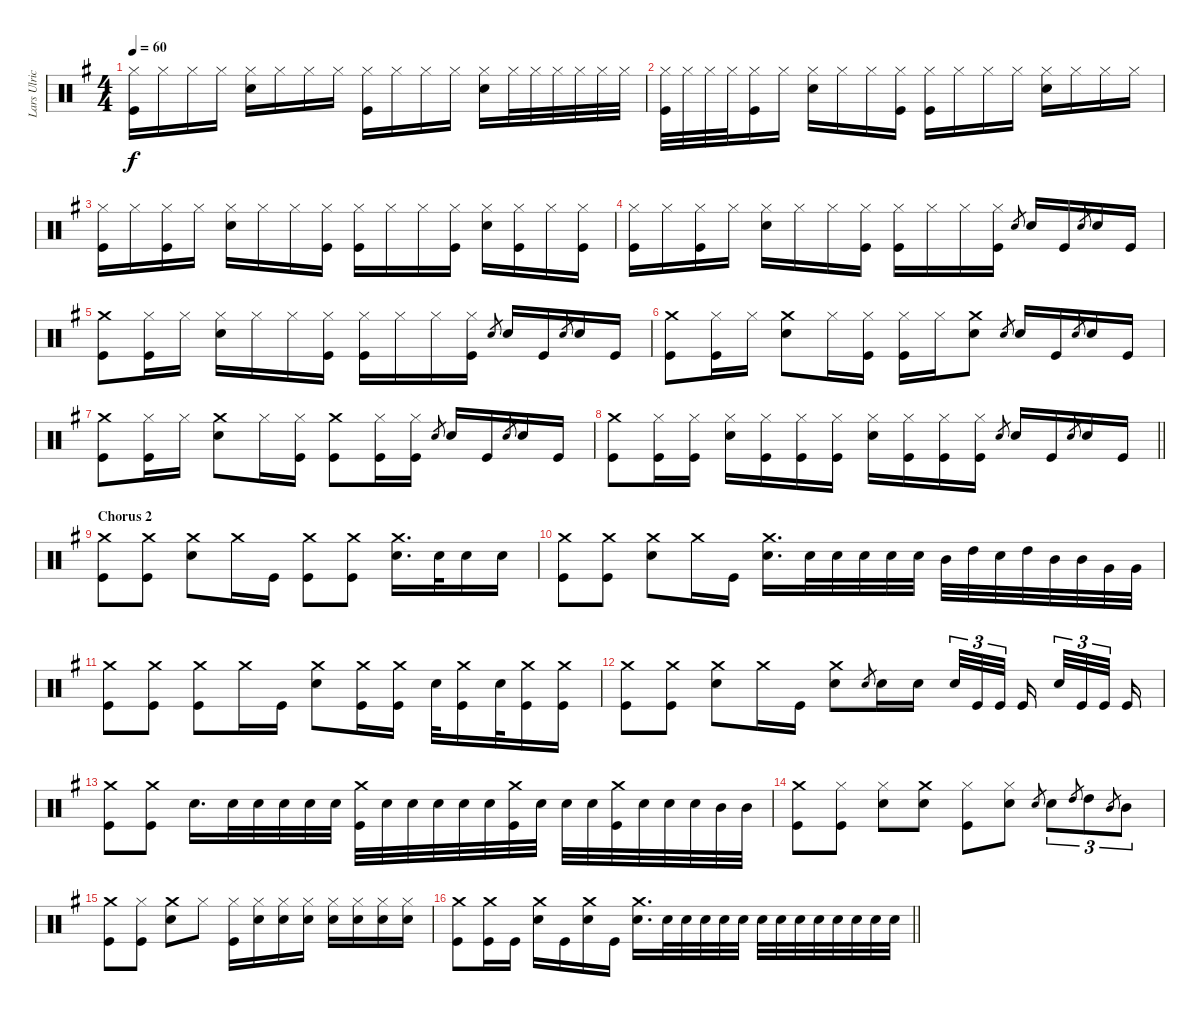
\track ("Lars Ulrich [Drums]" "Lars Ulric") {instrument percussion}
\staff {score}
\articulation defaults
\ts (4 4)
\tempo 60
\clef neutral
\ks g
("Kick (hit)" "Hi-Hat (closed)").16{dy f} "Hi-Hat (closed)".16 "Hi-Hat (closed)".16 "Hi-Hat (closed)".16 ("Electric Snare (hit)" "Hi-Hat (closed)").16 "Hi-Hat (closed)".16 "Hi-Hat (closed)".16 "Hi-Hat (closed)".16 ("Kick (hit)" "Hi-Hat (closed)").16 "Hi-Hat (closed)".16 "Hi-Hat (closed)".16 "Hi-Hat (closed)".16 ("Electric Snare (hit)" "Hi-Hat (closed)").16 "Hi-Hat (closed)".32 "Hi-Hat (closed)".32 "Hi-Hat (closed)".32 "Hi-Hat (closed)".32 "Hi-Hat (closed)".32 "Hi-Hat (closed)".32 |
("Kick (hit)" "Hi-Hat (closed)").32 "Hi-Hat (closed)".32 "Hi-Hat (closed)".32 "Hi-Hat (closed)".32 ("Kick (hit)" "Hi-Hat (closed)").16 "Hi-Hat (closed)".16 ("Electric Snare (hit)" "Hi-Hat (closed)").16 "Hi-Hat (closed)".16 "Hi-Hat (closed)".16 ("Kick (hit)" "Hi-Hat (closed)").16 ("Kick (hit)" "Hi-Hat (closed)").16 "Hi-Hat (closed)".16 "Hi-Hat (closed)".16 "Hi-Hat (closed)".16 ("Electric Snare (hit)" "Hi-Hat (closed)").16 "Hi-Hat (closed)".16 "Hi-Hat (closed)".16 "Hi-Hat (closed)".16 |
("Kick (hit)" "Hi-Hat (closed)").16 "Hi-Hat (closed)".16 ("Kick (hit)" "Hi-Hat (closed)").16 "Hi-Hat (closed)".16 ("Electric Snare (hit)" "Hi-Hat (closed)").16 "Hi-Hat (closed)".16 "Hi-Hat (closed)".16 ("Kick (hit)" "Hi-Hat (closed)").16 ("Kick (hit)" "Hi-Hat (closed)").16 "Hi-Hat (closed)".16 "Hi-Hat (closed)".16 ("Kick (hit)" "Hi-Hat (closed)").16 ("Electric Snare (hit)" "Hi-Hat (closed)").16 ("Kick (hit)" "Hi-Hat (closed)").16 "Hi-Hat (closed)".16 ("Kick (hit)" "Hi-Hat (closed)").16 |
("Kick (hit)" "Hi-Hat (closed)").16 "Hi-Hat (closed)".16 ("Kick (hit)" "Hi-Hat (closed)").16 "Hi-Hat (closed)".16 ("Electric Snare (hit)" "Hi-Hat (closed)").16 "Hi-Hat (closed)".16 "Hi-Hat (closed)".16 ("Kick (hit)" "Hi-Hat (closed)").16 ("Kick (hit)" "Hi-Hat (closed)").16 "Hi-Hat (closed)".16 "Hi-Hat (closed)".16 ("Kick (hit)" "Hi-Hat (closed)").16 "Electric Snare (hit)".8{gr} "Electric Snare (hit)".16 "Kick (hit)".16 "Electric Snare (hit)".8{gr} "Electric Snare (hit)".16 "Kick (hit)".16 |
("Kick (hit)" "Crash medium (hit)").8 ("Kick (hit)" "Hi-Hat (closed)").16 "Hi-Hat (closed)".16 ("Electric Snare (hit)" "Hi-Hat (closed)").16 "Hi-Hat (closed)".16 "Hi-Hat (closed)".16 ("Kick (hit)" "Hi-Hat (closed)").16 ("Kick (hit)" "Hi-Hat (closed)").16 "Hi-Hat (closed)".16 "Hi-Hat (closed)".16 ("Kick (hit)" "Hi-Hat (closed)").16 "Electric Snare (hit)".8{gr} "Electric Snare (hit)".16 "Kick (hit)".16 "Electric Snare (hit)".8{gr} "Electric Snare (hit)".16 "Kick (hit)".16 |
("Kick (hit)" "Crash medium (hit)").8 ("Kick (hit)" "Hi-Hat (closed)").16 "Hi-Hat (closed)".16 ("Electric Snare (hit)" "Crash medium (hit)").8 "Hi-Hat (closed)".16 ("Kick (hit)" "Hi-Hat (closed)").16 ("Kick (hit)" "Hi-Hat (closed)").16 "Hi-Hat (closed)".16 ("Electric Snare (hit)" "Crash medium (hit)").8 "Electric Snare (hit)".8{gr} "Electric Snare (hit)".16 "Kick (hit)".16 "Electric Snare (hit)".8{gr} "Electric Snare (hit)".16 "Kick (hit)".16 |
("Kick (hit)" "Crash medium (hit)").8 ("Kick (hit)" "Hi-Hat (closed)").16 "Hi-Hat (closed)".16 ("Electric Snare (hit)" "Crash medium (hit)").8 "Hi-Hat (closed)".16 ("Kick (hit)" "Hi-Hat (closed)").16 ("Kick (hit)" "Crash medium (hit)").8 ("Kick (hit)" "Hi-Hat (closed)").16 ("Kick (hit)" "Hi-Hat (closed)").16 "Electric Snare (hit)".8{gr} "Electric Snare (hit)".16 "Kick (hit)".16 "Electric Snare (hit)".8{gr} "Electric Snare (hit)".16 "Kick (hit)".16 |
\barLineRight lightlight
("Kick (hit)" "Crash medium (hit)").8 ("Kick (hit)" "Hi-Hat (closed)").16 ("Kick (hit)" "Hi-Hat (closed)").16 ("Electric Snare (hit)" "Hi-Hat (closed)").16 ("Kick (hit)" "Hi-Hat (closed)").16 ("Kick (hit)" "Hi-Hat (closed)").16 ("Kick (hit)" "Hi-Hat (closed)").16 ("Electric Snare (hit)" "Hi-Hat (closed)").16 ("Kick (hit)" "Hi-Hat (closed)").16 ("Kick (hit)" "Hi-Hat (closed)").16 ("Kick (hit)" "Hi-Hat (closed)").16 "Electric Snare (hit)".8{gr} "Electric Snare (hit)".16 "Kick (hit)".16 "Electric Snare (hit)".8{gr} "Electric Snare (hit)".16 "Kick (hit)".16 |
\section ("" "Chorus 2")
("Kick (hit)" "Crash medium (hit)").8 ("Kick (hit)" "Crash medium (hit)").8 ("Electric Snare (hit)" "Crash medium (hit)").8 "Crash medium (hit)".16 "Kick (hit)".16 ("Kick (hit)" "Crash medium (hit)").8 ("Kick (hit)" "Crash medium (hit)").8 ("Electric Snare (hit)" "Crash medium (hit)").16{d} "Electric Snare (hit)".32 "Electric Snare (hit)".16 "Electric Snare (hit)".16 |
("Kick (hit)" "Crash medium (hit)").8 ("Kick (hit)" "Crash medium (hit)").8 ("Electric Snare (hit)" "Crash medium (hit)").8 "Crash medium (hit)".16 "Kick (hit)".16 ("Electric Snare (hit)" "Crash medium (hit)").16{d} "Electric Snare (hit)".32 "Electric Snare (hit)".32 "Electric Snare (hit)".32 "Electric Snare (hit)".32 "Electric Snare (hit)".32 "Mid Tom (hit)".32 "High Tom (hit)".32 "Electric Snare (hit)".32 "High Tom (hit)".32 "Mid Tom (hit)".32 "Mid Tom (hit)".32 "Very Low Tom (hit)".32 "Very Low Tom (hit)".32 |
("Kick (hit)" "Crash medium (hit)").8 ("Kick (hit)" "Crash medium (hit)").8 ("Kick (hit)" "Crash medium (hit)").8 "Crash medium (hit)".16 "Kick (hit)".16 ("Electric Snare (hit)" "Crash medium (hit)").8 ("Kick (hit)" "Crash medium (hit)").16 ("Kick (hit)" "Crash medium (hit)").16 "Electric Snare (hit)".32 ("Kick (hit)" "Crash medium (hit)").16 "Electric Snare (hit)".32 ("Kick (hit)" "Crash medium (hit)").16 ("Kick (hit)" "Crash medium (hit)").16 |
("Kick (hit)" "Crash medium (hit)").8 ("Kick (hit)" "Crash medium (hit)").8 ("Electric Snare (hit)" "Crash medium (hit)").8 "Crash medium (hit)".16 "Kick (hit)".16 ("Electric Snare (hit)" "Crash medium (hit)").8 "Electric Snare (hit)".8{gr} "Electric Snare (hit)".16 "Electric Snare (hit)".16 "Electric Snare (hit)".32{tu (3 2)} "Kick (hit)".32{tu (3 2)} "Kick (hit)".32{tu (3 2) beam splitsecondary} "Kick (hit)".16{beam splitsecondary} "Electric Snare (hit)".32{tu (3 2)} "Kick (hit)".32{tu (3 2)} "Kick (hit)".32{tu (3 2) beam splitsecondary} "Kick (hit)".16 |
("Kick (hit)" "Crash medium (hit)").8 ("Kick (hit)" "Crash medium (hit)").8 "Electric Snare (hit)".16{d} "Electric Snare (hit)".32 "Electric Snare (hit)".32 "Electric Snare (hit)".32 "Electric Snare (hit)".32 "Electric Snare (hit)".32 ("Kick (hit)" "Crash medium (hit)").32 "Electric Snare (hit)".32 "Electric Snare (hit)".32 "Electric Snare (hit)".32 "Electric Snare (hit)".32 "Electric Snare (hit)".32 ("Kick (hit)" "Crash medium (hit)").32 "Electric Snare (hit)".32 "Electric Snare (hit)".32 "Electric Snare (hit)".32 ("Kick (hit)" "Crash medium (hit)").32 "Electric Snare (hit)".32 "Electric Snare (hit)".32 "Electric Snare (hit)".32 "Mid Tom (hit)".32 "Mid Tom (hit)".32 |
("Kick (hit)" "Crash medium (hit)").8 ("Kick (hit)" "Hi-Hat (closed)").8 ("Electric Snare (hit)" "Hi-Hat (closed)").8 ("Electric Snare (hit)" "Crash medium (hit)").8 ("Kick (hit)" "Hi-Hat (closed)").8 ("Electric Snare (hit)" "Hi-Hat (closed)").8 "Electric Snare (hit)".8{gr} "Electric Snare (hit)".8{tu (3 2)} "High Tom (hit)".8{gr} "High Tom (hit)".8{tu (3 2)} "Mid Tom (hit)".8{gr} "Mid Tom (hit)".8{tu (3 2)} |
("Kick (hit)" "Crash medium (hit)").8 ("Kick (hit)" "Hi-Hat (closed)").8 ("Electric Snare (hit)" "Crash medium (hit)").8 "Hi-Hat (closed)".8 ("Kick (hit)" "Hi-Hat (closed)").16 ("Electric Snare (hit)" "Hi-Hat (closed)").16 ("Electric Snare (hit)" "Hi-Hat (closed)").16 ("Electric Snare (hit)" "Hi-Hat (closed)").16 ("Electric Snare (hit)" "Hi-Hat (closed)").16 ("Electric Snare (hit)" "Hi-Hat (closed)").16 ("Electric Snare (hit)" "Hi-Hat (closed)").16 ("Electric Snare (hit)" "Hi-Hat (closed)").16 |
\barLineRight lightlight
("Kick (hit)" "Crash medium (hit)").8 ("Kick (hit)" "Crash medium (hit)").16 "Kick (hit)".16 ("Electric Snare (hit)" "Crash medium (hit)").16 "Kick (hit)".16 ("Electric Snare (hit)" "Crash medium (hit)").16 "Kick (hit)".16 ("Electric Snare (hit)" "Crash medium (hit)").16{d} "Electric Snare (hit)".32 "Electric Snare (hit)".32 "Electric Snare (hit)".32 "Electric Snare (hit)".32 "Electric Snare (hit)".32 "Electric Snare (hit)".32 "Electric Snare (hit)".32 "Electric Snare (hit)".32 "Electric Snare (hit)".32 "Electric Snare (hit)".32 "Electric Snare (hit)".32 "Electric Snare (hit)".32 "Electric Snare (hit)".32
